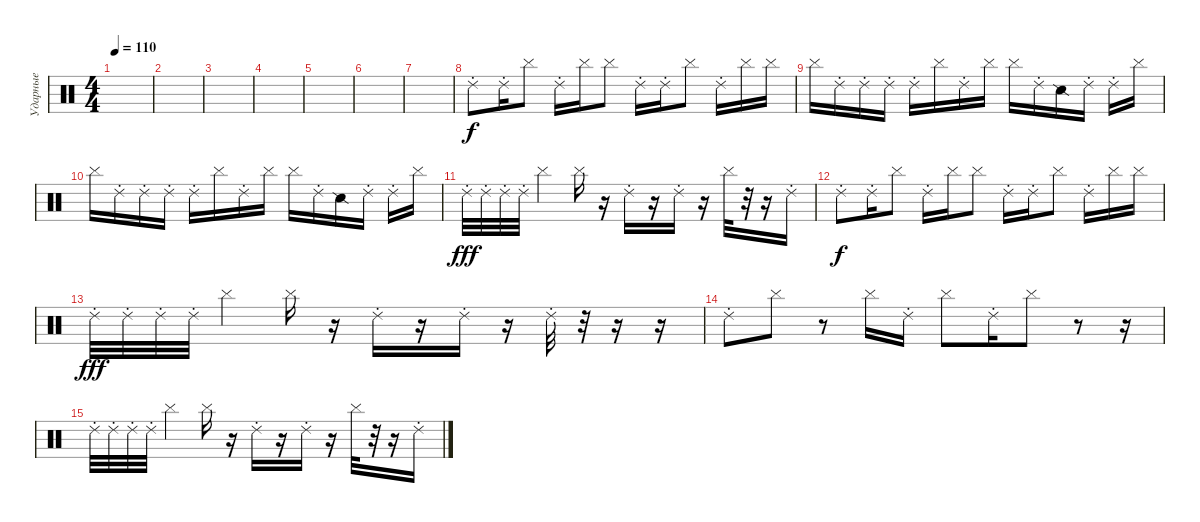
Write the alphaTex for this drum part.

\track ("Ударные" "Ударные") {instrument percussion}
\staff {score}
\articulation defaults
\ts (4 4)
\tempo 110
\clef neutral
\ks c
|
|
|
|
|
|
|
"Ride (choke) 2".8{dy f} "Ride (choke) 2".16 "Cymbal (hit)".8 "Ride (choke) 2".16 "Cymbal (hit)".16 "Cymbal (hit)".8 "Ride (choke) 2".16 "Ride (choke) 2".16 "Cymbal (hit)".8 "Ride (choke) 2".16 "Cymbal (hit)".16 "Cymbal (hit)".16 |
"Cymbal (hit)".16 "Ride (choke) 2".16 "Ride (choke) 2".16 "Ride (choke) 2".16 "Ride (choke) 2".16 "Cymbal (hit)".16 "Ride (choke) 2".16 "Cymbal (hit)".16 "Cymbal (hit)".16 "Ride (choke) 2".16 "Snare (side stick) 2".16 "Ride (choke) 2".16 "Ride (choke) 2".16 "Cymbal (hit)".16 |
"Cymbal (hit)".16 "Ride (choke) 2".16 "Ride (choke) 2".16 "Ride (choke) 2".16 "Ride (choke) 2".16 "Cymbal (hit)".16 "Ride (choke) 2".16 "Cymbal (hit)".16 "Cymbal (hit)".16 "Ride (choke) 2".16 "Snare (side stick) 2".16 "Ride (choke) 2".16 "Ride (choke) 2".16 "Cymbal (hit)".16 |
"Ride (choke) 2".32{dy fff} "Ride (choke) 2".32 "Ride (choke) 2".32 "Ride (choke) 2".32 "Cymbal (hit)".4 "Cymbal (hit)".16 r.16 "Ride (choke) 2".16 r.16 "Ride (choke) 2".16 r.16 "Cymbal (hit)".32 r.32 r.16 "Ride (choke) 2".16 |
"Ride (choke) 2".8{dy f} "Ride (choke) 2".16 "Cymbal (hit)".8 "Ride (choke) 2".16 "Cymbal (hit)".16 "Cymbal (hit)".8 "Ride (choke) 2".16 "Ride (choke) 2".16 "Cymbal (hit)".8 "Ride (choke) 2".16 "Cymbal (hit)".16 "Cymbal (hit)".16 |
"Ride (choke) 2".32{dy fff} "Ride (choke) 2".32 "Ride (choke) 2".32 "Ride (choke) 2".32 "Cymbal (hit)".4 "Cymbal (hit)".16 r.16 "Ride (choke) 2".16 r.16 "Ride (choke) 2".16 r.16 "Ride (choke) 2".32 r.32 r.16 r.16 |
"Ride (choke) 2".8 "Cymbal (hit)".8 r.8 "Cymbal (hit)".16 "Ride (choke) 2".16 "Cymbal (hit)".8 "Ride (choke) 2".16 "Cymbal (hit)".8 r.8 r.16 |
"Ride (choke) 2".32 "Ride (choke) 2".32 "Ride (choke) 2".32 "Ride (choke) 2".32 "Cymbal (hit)".4 "Cymbal (hit)".16 r.16 "Ride (choke) 2".16 r.16 "Ride (choke) 2".16 r.16 "Cymbal (hit)".32 r.32 r.16 "Ride (choke) 2".16
